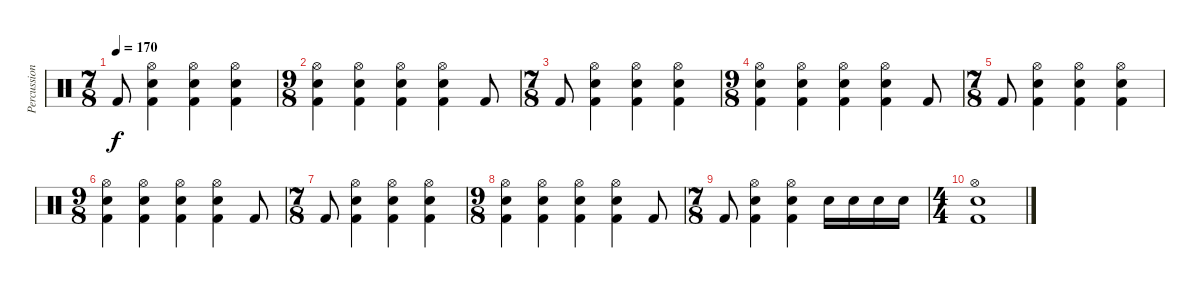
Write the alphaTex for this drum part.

\track ("Percussion" "Percussion") {instrument percussion}
\staff {score}
\articulation defaults
\ts (7 8)
\tempo 170
\clef neutral
\ks c "Kick (hit) 2".8{dy f}
("Kick (hit) 2" "Snare (hit) 2" "Hi-Hat (open)").4 ("Kick (hit) 2" "Snare (hit) 2" "Hi-Hat (open)").4 ("Kick (hit) 2" "Snare (hit) 2" "Hi-Hat (open)").4 |
\ts (9 8)
("Kick (hit) 2" "Snare (hit) 2" "Hi-Hat (open)").4 ("Kick (hit) 2" "Snare (hit) 2" "Hi-Hat (open)").4 ("Kick (hit) 2" "Snare (hit) 2" "Hi-Hat (open)").4 ("Kick (hit) 2" "Snare (hit) 2" "Hi-Hat (open)").4 "Kick (hit) 2".8 |
\ts (7 8)
"Kick (hit) 2".8 ("Kick (hit) 2" "Snare (hit) 2" "Hi-Hat (open)").4 ("Kick (hit) 2" "Snare (hit) 2" "Hi-Hat (open)").4 ("Kick (hit) 2" "Snare (hit) 2" "Hi-Hat (open)").4 |
\ts (9 8)
("Kick (hit) 2" "Snare (hit) 2" "Hi-Hat (open)").4 ("Kick (hit) 2" "Snare (hit) 2" "Hi-Hat (open)").4 ("Kick (hit) 2" "Snare (hit) 2" "Hi-Hat (open)").4 ("Kick (hit) 2" "Snare (hit) 2" "Hi-Hat (open)").4 "Kick (hit) 2".8 |
\ts (7 8)
"Kick (hit) 2".8 ("Kick (hit) 2" "Snare (hit) 2" "Hi-Hat (open)").4 ("Kick (hit) 2" "Snare (hit) 2" "Hi-Hat (open)").4 ("Kick (hit) 2" "Snare (hit) 2" "Hi-Hat (open)").4 |
\ts (9 8)
("Kick (hit) 2" "Snare (hit) 2" "Hi-Hat (open)").4 ("Kick (hit) 2" "Snare (hit) 2" "Hi-Hat (open)").4 ("Kick (hit) 2" "Snare (hit) 2" "Hi-Hat (open)").4 ("Kick (hit) 2" "Snare (hit) 2" "Hi-Hat (open)").4 "Kick (hit) 2".8 |
\ts (7 8)
"Kick (hit) 2".8 ("Kick (hit) 2" "Snare (hit) 2" "Hi-Hat (open)").4 ("Kick (hit) 2" "Snare (hit) 2" "Hi-Hat (open)").4 ("Kick (hit) 2" "Snare (hit) 2" "Hi-Hat (open)").4 |
\ts (9 8)
("Kick (hit) 2" "Snare (hit) 2" "Hi-Hat (open)").4 ("Kick (hit) 2" "Snare (hit) 2" "Hi-Hat (open)").4 ("Kick (hit) 2" "Snare (hit) 2" "Hi-Hat (open)").4 ("Kick (hit) 2" "Snare (hit) 2" "Hi-Hat (open)").4 "Kick (hit) 2".8 |
\ts (7 8)
"Kick (hit) 2".8 ("Kick (hit) 2" "Snare (hit) 2" "Hi-Hat (open)").4 ("Kick (hit) 2" "Snare (hit) 2" "Hi-Hat (open)").4 "Snare (hit) 2".16 "Snare (hit) 2".16 "Snare (hit) 2".16 "Snare (hit) 2".16 |
\ts (4 4)
("Snare (hit) 2" "Kick (hit) 2" "Hi-Hat (open)").1
